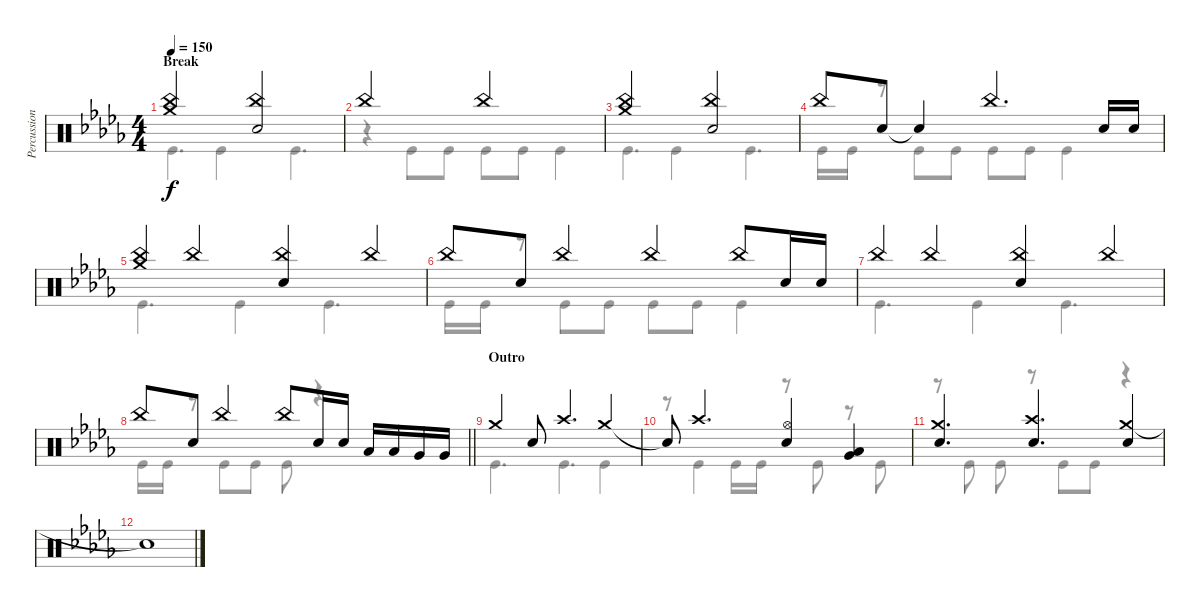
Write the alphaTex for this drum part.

\track ("Percussion" "Percussion") {instrument percussion}
\staff {score}
\articulation defaults
\voice
\ts (4 4)
\section ("" "Break")
\tempo 150
\clef neutral
\ks bbminor
("Crash medium (hit)" "China (hit)").2{dy f} ("China (hit)" "Electric Snare (hit)").2 |
"China (hit)".2 "China (hit)".2 |
("Crash medium (hit)" "China (hit)").2 ("China (hit)" "Electric Snare (hit)").2 |
"China (hit)".8 "Electric Snare (hit)".8 "Snare (hit)"{t}.4 "China (hit)".4{d} "Electric Snare (hit)".16 "Electric Snare (hit)".16 |
("Crash medium (hit)" "China (hit)").4 "China (hit)".4 ("China (hit)" "Electric Snare (hit)").4 "China (hit)".4 |
"China (hit)".8 "Electric Snare (hit)".8 "China (hit)".4 "China (hit)".4 "China (hit)".8 "Electric Snare (hit)".16 "Electric Snare (hit)".16 |
"China (hit)".4 "China (hit)".4 ("China (hit)" "Electric Snare (hit)").4 "China (hit)".4 |
\barLineRight lightlight "China (hit)".8 "Electric Snare (hit)".8 "China (hit)".4 "China (hit)".8 "Electric Snare (hit)".16 "Electric Snare (hit)".16 "Low Tom (hit)".16 "Low Tom (hit)".16 "Very Low Tom (hit)".16 "Very Low Tom (hit)".16
|
\section ("" "Outro")
"Crash medium (hit)".4 "Electric Snare (hit)".8 "Crash high (hit)".4{d} "Crash medium (hit)".4 |
"Snare (hit)"{t}.8 "Crash high (hit)".4{d} ("Hi-Hat (open)" "Electric Snare (hit)").4 ("Low Tom (hit)" "Very Low Tom (hit)").4 |
("Crash medium (hit)" "Electric Snare (hit)").4{d} ("Crash high (hit)" "Electric Snare (hit)").4{d} ("Crash medium (hit)" "Electric Snare (hit)").4 |
"Snare (hit)"{t}.1 |
|
|
|
\voice
\clef neutral
\ottava regular
\simile none
\ks bbminor "Kick (hit)".4{d dy f} "Kick (hit)".4 "Kick (hit)".4{d}
|
r.4 "Kick (hit)".8 "Kick (hit)".8 "Kick (hit)".8 "Kick (hit)".8 "Kick (hit)".4 |
"Kick (hit)".4{d} "Kick (hit)".4 "Kick (hit)".4{d} |
"Kick (hit)".16 "Kick (hit)".16 r.8 "Kick (hit)".8 "Kick (hit)".8 "Kick (hit)".8 "Kick (hit)".8 "Kick (hit)".4 |
"Kick (hit)".4{d} "Kick (hit)".4 "Kick (hit)".4{d} |
"Kick (hit)".16 "Kick (hit)".16 r.8 "Kick (hit)".8 "Kick (hit)".8 "Kick (hit)".8 "Kick (hit)".8 "Kick (hit)".4 |
"Kick (hit)".4{d} "Kick (hit)".4 "Kick (hit)".4{d} |
\barLineRight lightlight "Kick (hit)".16 "Kick (hit)".16
r.8 "Kick (hit)".8 "Kick (hit)".8 "Kick (hit)".8 r.4{d} |
"Kick (hit)".4{d} "Kick (hit)".4{d} "Kick (hit)".4 |
r.8 "Kick (hit)".4 "Kick (hit)".16 "Kick (hit)".16 r.8 "Kick (hit)".8 r.8 "Kick (hit)".8 |
r.8 "Kick (hit)".8 "Kick (hit)".8 r.8 "Kick (hit)".8 "Kick (hit)".8 r.4 |
|
|
|
|
